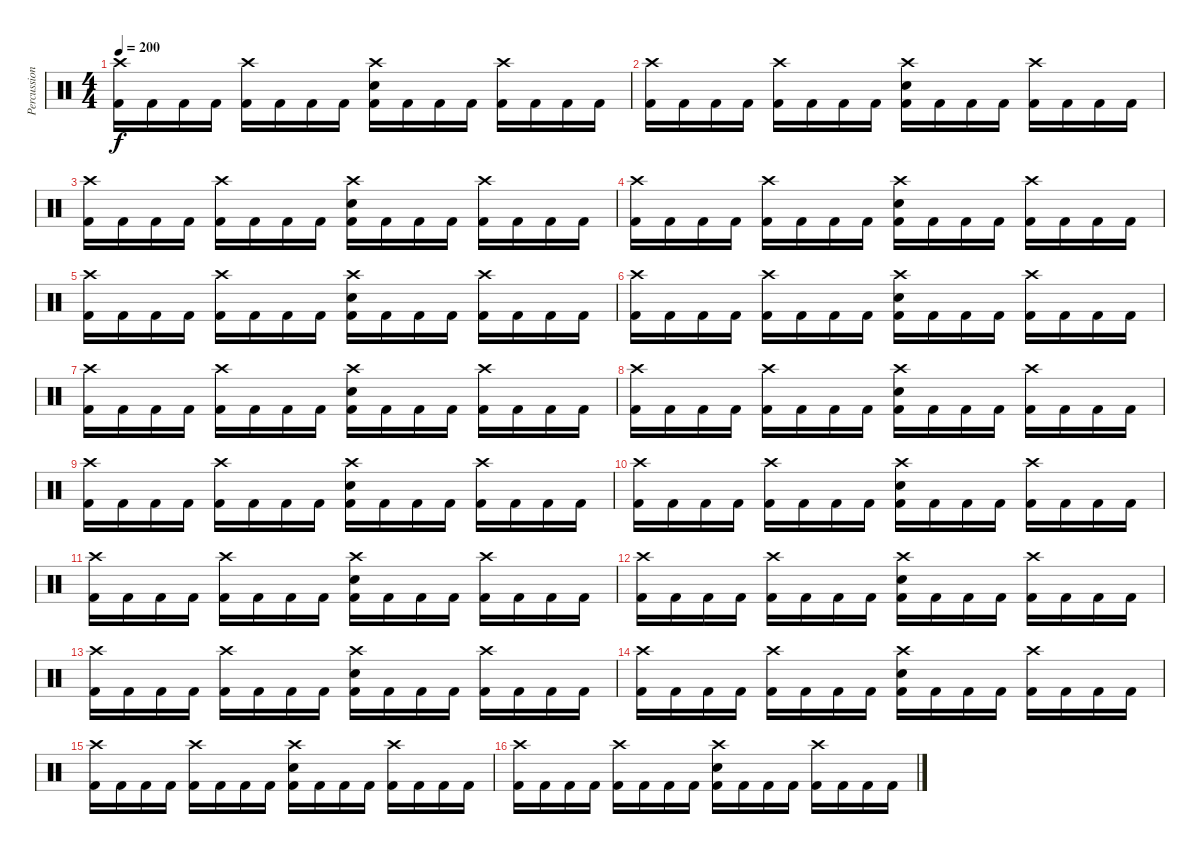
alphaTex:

\track ("Percussion" "Percussion") {instrument percussion}
\staff {score}
\articulation defaults
\ts (4 4)
\tempo 200
\clef neutral
\ks c
("Crash high (hit)" "Kick (hit) 2").16{dy f} "Kick (hit) 2".16 "Kick (hit) 2".16 "Kick (hit) 2".16 ("Crash high (hit)" "Kick (hit) 2").16 "Kick (hit) 2".16 "Kick (hit) 2".16 "Kick (hit) 2".16 ("Crash high (hit)" "Kick (hit) 2" "Snare (hit) 2").16 "Kick (hit) 2".16 "Kick (hit) 2".16 "Kick (hit) 2".16 ("Crash high (hit)" "Kick (hit) 2").16 "Kick (hit) 2".16 "Kick (hit) 2".16 "Kick (hit) 2".16 |
("Crash high (hit)" "Kick (hit) 2").16 "Kick (hit) 2".16 "Kick (hit) 2".16 "Kick (hit) 2".16 ("Crash high (hit)" "Kick (hit) 2").16 "Kick (hit) 2".16 "Kick (hit) 2".16 "Kick (hit) 2".16 ("Crash high (hit)" "Kick (hit) 2" "Snare (hit) 2").16 "Kick (hit) 2".16 "Kick (hit) 2".16 "Kick (hit) 2".16 ("Crash high (hit)" "Kick (hit) 2").16 "Kick (hit) 2".16 "Kick (hit) 2".16 "Kick (hit) 2".16 |
("Crash high (hit)" "Kick (hit) 2").16 "Kick (hit) 2".16 "Kick (hit) 2".16 "Kick (hit) 2".16 ("Crash high (hit)" "Kick (hit) 2").16 "Kick (hit) 2".16 "Kick (hit) 2".16 "Kick (hit) 2".16 ("Crash high (hit)" "Kick (hit) 2" "Snare (hit) 2").16 "Kick (hit) 2".16 "Kick (hit) 2".16 "Kick (hit) 2".16 ("Crash high (hit)" "Kick (hit) 2").16 "Kick (hit) 2".16 "Kick (hit) 2".16 "Kick (hit) 2".16 |
("Crash high (hit)" "Kick (hit) 2").16 "Kick (hit) 2".16 "Kick (hit) 2".16 "Kick (hit) 2".16 ("Crash high (hit)" "Kick (hit) 2").16 "Kick (hit) 2".16 "Kick (hit) 2".16 "Kick (hit) 2".16 ("Crash high (hit)" "Kick (hit) 2" "Snare (hit) 2").16 "Kick (hit) 2".16 "Kick (hit) 2".16 "Kick (hit) 2".16 ("Crash high (hit)" "Kick (hit) 2").16 "Kick (hit) 2".16 "Kick (hit) 2".16 "Kick (hit) 2".16 |
("Crash high (hit)" "Kick (hit) 2").16 "Kick (hit) 2".16 "Kick (hit) 2".16 "Kick (hit) 2".16 ("Crash high (hit)" "Kick (hit) 2").16 "Kick (hit) 2".16 "Kick (hit) 2".16 "Kick (hit) 2".16 ("Crash high (hit)" "Kick (hit) 2" "Snare (hit) 2").16 "Kick (hit) 2".16 "Kick (hit) 2".16 "Kick (hit) 2".16 ("Crash high (hit)" "Kick (hit) 2").16 "Kick (hit) 2".16 "Kick (hit) 2".16 "Kick (hit) 2".16 |
("Crash high (hit)" "Kick (hit) 2").16 "Kick (hit) 2".16 "Kick (hit) 2".16 "Kick (hit) 2".16 ("Crash high (hit)" "Kick (hit) 2").16 "Kick (hit) 2".16 "Kick (hit) 2".16 "Kick (hit) 2".16 ("Crash high (hit)" "Kick (hit) 2" "Snare (hit) 2").16 "Kick (hit) 2".16 "Kick (hit) 2".16 "Kick (hit) 2".16 ("Crash high (hit)" "Kick (hit) 2").16 "Kick (hit) 2".16 "Kick (hit) 2".16 "Kick (hit) 2".16 |
("Crash high (hit)" "Kick (hit) 2").16 "Kick (hit) 2".16 "Kick (hit) 2".16 "Kick (hit) 2".16 ("Crash high (hit)" "Kick (hit) 2").16 "Kick (hit) 2".16 "Kick (hit) 2".16 "Kick (hit) 2".16 ("Crash high (hit)" "Kick (hit) 2" "Snare (hit) 2").16 "Kick (hit) 2".16 "Kick (hit) 2".16 "Kick (hit) 2".16 ("Crash high (hit)" "Kick (hit) 2").16 "Kick (hit) 2".16 "Kick (hit) 2".16 "Kick (hit) 2".16 |
("Crash high (hit)" "Kick (hit) 2").16 "Kick (hit) 2".16 "Kick (hit) 2".16 "Kick (hit) 2".16 ("Crash high (hit)" "Kick (hit) 2").16 "Kick (hit) 2".16 "Kick (hit) 2".16 "Kick (hit) 2".16 ("Crash high (hit)" "Kick (hit) 2" "Snare (hit) 2").16 "Kick (hit) 2".16 "Kick (hit) 2".16 "Kick (hit) 2".16 ("Crash high (hit)" "Kick (hit) 2").16 "Kick (hit) 2".16 "Kick (hit) 2".16 "Kick (hit) 2".16 |
("Crash high (hit)" "Kick (hit) 2").16 "Kick (hit) 2".16 "Kick (hit) 2".16 "Kick (hit) 2".16 ("Crash high (hit)" "Kick (hit) 2").16 "Kick (hit) 2".16 "Kick (hit) 2".16 "Kick (hit) 2".16 ("Crash high (hit)" "Kick (hit) 2" "Snare (hit) 2").16 "Kick (hit) 2".16 "Kick (hit) 2".16 "Kick (hit) 2".16 ("Crash high (hit)" "Kick (hit) 2").16 "Kick (hit) 2".16 "Kick (hit) 2".16 "Kick (hit) 2".16 |
("Crash high (hit)" "Kick (hit) 2").16 "Kick (hit) 2".16 "Kick (hit) 2".16 "Kick (hit) 2".16 ("Crash high (hit)" "Kick (hit) 2").16 "Kick (hit) 2".16 "Kick (hit) 2".16 "Kick (hit) 2".16 ("Crash high (hit)" "Kick (hit) 2" "Snare (hit) 2").16 "Kick (hit) 2".16 "Kick (hit) 2".16 "Kick (hit) 2".16 ("Crash high (hit)" "Kick (hit) 2").16 "Kick (hit) 2".16 "Kick (hit) 2".16 "Kick (hit) 2".16 |
("Crash high (hit)" "Kick (hit) 2").16 "Kick (hit) 2".16 "Kick (hit) 2".16 "Kick (hit) 2".16 ("Crash high (hit)" "Kick (hit) 2").16 "Kick (hit) 2".16 "Kick (hit) 2".16 "Kick (hit) 2".16 ("Crash high (hit)" "Kick (hit) 2" "Snare (hit) 2").16 "Kick (hit) 2".16 "Kick (hit) 2".16 "Kick (hit) 2".16 ("Crash high (hit)" "Kick (hit) 2").16 "Kick (hit) 2".16 "Kick (hit) 2".16 "Kick (hit) 2".16 |
("Crash high (hit)" "Kick (hit) 2").16 "Kick (hit) 2".16 "Kick (hit) 2".16 "Kick (hit) 2".16 ("Crash high (hit)" "Kick (hit) 2").16 "Kick (hit) 2".16 "Kick (hit) 2".16 "Kick (hit) 2".16 ("Crash high (hit)" "Kick (hit) 2" "Snare (hit) 2").16 "Kick (hit) 2".16 "Kick (hit) 2".16 "Kick (hit) 2".16 ("Crash high (hit)" "Kick (hit) 2").16 "Kick (hit) 2".16 "Kick (hit) 2".16 "Kick (hit) 2".16 |
("Crash high (hit)" "Kick (hit) 2").16 "Kick (hit) 2".16 "Kick (hit) 2".16 "Kick (hit) 2".16 ("Crash high (hit)" "Kick (hit) 2").16 "Kick (hit) 2".16 "Kick (hit) 2".16 "Kick (hit) 2".16 ("Crash high (hit)" "Kick (hit) 2" "Snare (hit) 2").16 "Kick (hit) 2".16 "Kick (hit) 2".16 "Kick (hit) 2".16 ("Crash high (hit)" "Kick (hit) 2").16 "Kick (hit) 2".16 "Kick (hit) 2".16 "Kick (hit) 2".16 |
("Crash high (hit)" "Kick (hit) 2").16 "Kick (hit) 2".16 "Kick (hit) 2".16 "Kick (hit) 2".16 ("Crash high (hit)" "Kick (hit) 2").16 "Kick (hit) 2".16 "Kick (hit) 2".16 "Kick (hit) 2".16 ("Crash high (hit)" "Kick (hit) 2" "Snare (hit) 2").16 "Kick (hit) 2".16 "Kick (hit) 2".16 "Kick (hit) 2".16 ("Crash high (hit)" "Kick (hit) 2").16 "Kick (hit) 2".16 "Kick (hit) 2".16 "Kick (hit) 2".16 |
("Crash high (hit)" "Kick (hit) 2").16 "Kick (hit) 2".16 "Kick (hit) 2".16 "Kick (hit) 2".16 ("Crash high (hit)" "Kick (hit) 2").16 "Kick (hit) 2".16 "Kick (hit) 2".16 "Kick (hit) 2".16 ("Crash high (hit)" "Kick (hit) 2" "Snare (hit) 2").16 "Kick (hit) 2".16 "Kick (hit) 2".16 "Kick (hit) 2".16 ("Crash high (hit)" "Kick (hit) 2").16 "Kick (hit) 2".16 "Kick (hit) 2".16 "Kick (hit) 2".16 |
("Crash high (hit)" "Kick (hit) 2").16 "Kick (hit) 2".16 "Kick (hit) 2".16 "Kick (hit) 2".16 ("Crash high (hit)" "Kick (hit) 2").16 "Kick (hit) 2".16 "Kick (hit) 2".16 "Kick (hit) 2".16 ("Crash high (hit)" "Kick (hit) 2" "Snare (hit) 2").16 "Kick (hit) 2".16 "Kick (hit) 2".16 "Kick (hit) 2".16 ("Crash high (hit)" "Kick (hit) 2").16 "Kick (hit) 2".16 "Kick (hit) 2".16 "Kick (hit) 2".16
